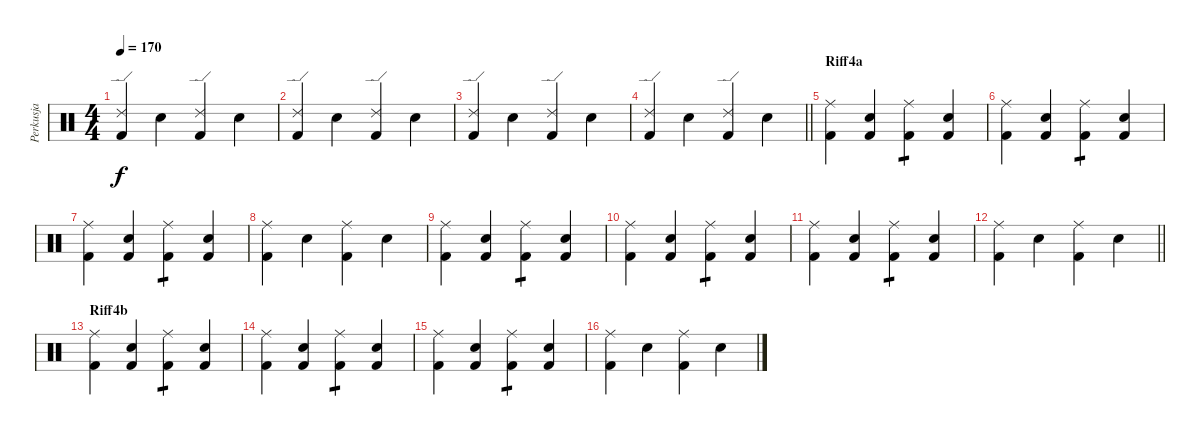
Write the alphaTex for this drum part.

\track ("Perkusja" "Perkusja") {instrument percussion}
\staff {score}
\articulation defaults
\ts (4 4)
\tempo 170
\clef neutral
\ks c
("Ride (edge) 2" "Kick (hit) 2").4{dy f} "Electric Snare (hit)".4 ("Ride (edge) 2" "Kick (hit) 2").4 "Electric Snare (hit)".4 |
("Ride (edge) 2" "Kick (hit) 2").4 "Electric Snare (hit)".4 ("Ride (edge) 2" "Kick (hit) 2").4 "Electric Snare (hit)".4 |
("Ride (edge) 2" "Kick (hit) 2").4 "Electric Snare (hit)".4 ("Ride (edge) 2" "Kick (hit) 2").4 "Electric Snare (hit)".4 |
\barLineRight lightlight
("Ride (edge) 2" "Kick (hit) 2").4 "Electric Snare (hit)".4 ("Ride (edge) 2" "Kick (hit) 2").4 "Electric Snare (hit)".4 |
\section ("" "Riff4a")
("Ride (middle)" "Kick (hit) 2").4 ("Electric Snare (hit)" "Kick (hit) 2").4 ("Ride (middle)" "Kick (hit) 2").4{tp 1} ("Electric Snare (hit)" "Kick (hit) 2").4 |
("Ride (middle)" "Kick (hit) 2").4 ("Electric Snare (hit)" "Kick (hit) 2").4 ("Ride (middle)" "Kick (hit) 2").4{tp 1} ("Electric Snare (hit)" "Kick (hit) 2").4 |
("Ride (middle)" "Kick (hit) 2").4 ("Electric Snare (hit)" "Kick (hit) 2").4 ("Ride (middle)" "Kick (hit) 2").4{tp 1} ("Electric Snare (hit)" "Kick (hit) 2").4 |
("Ride (middle)" "Kick (hit) 2").4 "Electric Snare (hit)".4 ("Ride (middle)" "Kick (hit) 2").4 "Electric Snare (hit)".4 |
("Ride (middle)" "Kick (hit) 2").4 ("Electric Snare (hit)" "Kick (hit) 2").4 ("Ride (middle)" "Kick (hit) 2").4{tp 1} ("Electric Snare (hit)" "Kick (hit) 2").4 |
("Ride (middle)" "Kick (hit) 2").4 ("Electric Snare (hit)" "Kick (hit) 2").4 ("Ride (middle)" "Kick (hit) 2").4{tp 1} ("Electric Snare (hit)" "Kick (hit) 2").4 |
("Ride (middle)" "Kick (hit) 2").4 ("Electric Snare (hit)" "Kick (hit) 2").4 ("Ride (middle)" "Kick (hit) 2").4{tp 1} ("Electric Snare (hit)" "Kick (hit) 2").4 |
\barLineRight lightlight
("Ride (middle)" "Kick (hit) 2").4 "Electric Snare (hit)".4 ("Ride (middle)" "Kick (hit) 2").4 "Electric Snare (hit)".4 |
\section ("" "Riff4b")
("Ride (middle)" "Kick (hit) 2").4 ("Electric Snare (hit)" "Kick (hit) 2").4 ("Ride (middle)" "Kick (hit) 2").4{tp 1} ("Electric Snare (hit)" "Kick (hit) 2").4 |
("Ride (middle)" "Kick (hit) 2").4 ("Electric Snare (hit)" "Kick (hit) 2").4 ("Ride (middle)" "Kick (hit) 2").4{tp 1} ("Electric Snare (hit)" "Kick (hit) 2").4 |
("Ride (middle)" "Kick (hit) 2").4 ("Electric Snare (hit)" "Kick (hit) 2").4 ("Ride (middle)" "Kick (hit) 2").4{tp 1} ("Electric Snare (hit)" "Kick (hit) 2").4 |
("Ride (middle)" "Kick (hit) 2").4 "Electric Snare (hit)".4 ("Ride (middle)" "Kick (hit) 2").4 "Electric Snare (hit)".4
